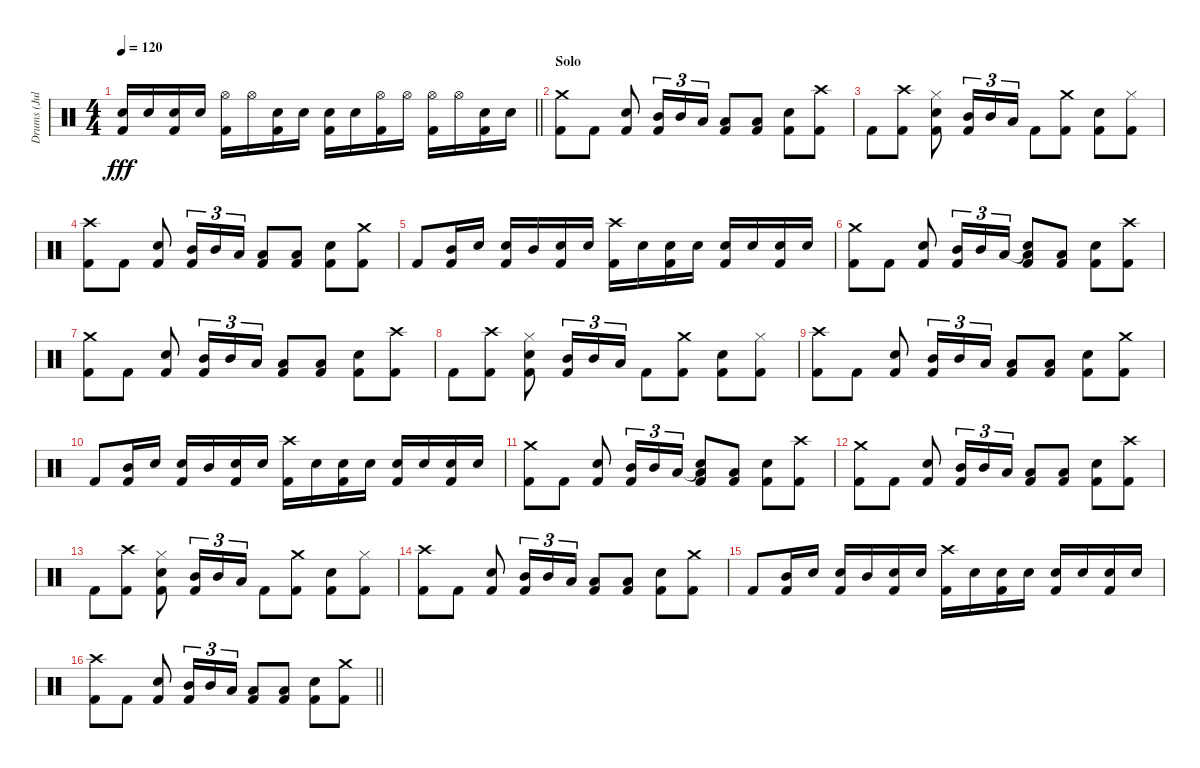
\track ("Drums (Julian Del Rosario)" "Drums (Jul") {instrument percussion}
\staff {score}
\articulation defaults
\ts (4 4)
\tempo 120
\clef neutral
\barLineRight lightlight
\ks c
("Snare (hit) 2" "Kick (hit) 2").16{dy fff} "Snare (hit) 2".16 ("Snare (hit) 2" "Kick (hit) 2").16 "Snare (hit) 2".16 ("Hi-Hat (open)" "Kick (hit) 2").16 "Hi-Hat (open)".16 ("Snare (hit) 2" "Kick (hit) 2").16 "Snare (hit) 2".16 ("Snare (hit) 2" "Kick (hit) 2").16 "Snare (hit) 2".16 ("Hi-Hat (open)" "Kick (hit) 2").16 "Hi-Hat (open)".16 ("Hi-Hat (open)" "Kick (hit) 2").16 "Hi-Hat (open)".16 ("Snare (hit) 2" "Kick (hit) 2").16 "Snare (hit) 2".16 |
\section ("" "Solo")
("Crash medium (hit)" "Kick (hit) 2").8 "Kick (hit) 2".8 ("Snare (hit) 2" "Kick (hit) 2").8 ("Mid Tom (hit)" "Kick (hit) 2").16{tu (3 2)} "Mid Tom (hit)".16{tu (3 2)} "Low Tom (hit)".16{tu (3 2)} ("Low Tom (hit)" "Kick (hit) 2").8 ("Low Tom (hit)" "Kick (hit) 2").8 ("Snare (hit) 2" "Kick (hit) 2").8 ("Crash high (hit)" "Kick (hit) 2").8 |
"Kick (hit) 2".8 ("Crash high (hit)" "Kick (hit) 2").8 ("Hi-Hat (closed)" "Snare (hit) 2" "Kick (hit) 2").8 ("Mid Tom (hit)" "Kick (hit) 2").16{tu (3 2)} "Mid Tom (hit)".16{tu (3 2)} "Low Tom (hit)".16{tu (3 2)} "Kick (hit) 2".8 ("Crash medium (hit)" "Kick (hit) 2").8 ("Snare (hit) 2" "Kick (hit) 2").8 ("Hi-Hat (closed)" "Kick (hit) 2").8 |
("Crash high (hit)" "Kick (hit) 2").8 "Kick (hit) 2".8 ("Snare (hit) 2" "Kick (hit) 2").8 ("Mid Tom (hit)" "Kick (hit) 2").16{tu (3 2)} "Mid Tom (hit)".16{tu (3 2)} "Low Tom (hit)".16{tu (3 2)} ("Low Tom (hit)" "Kick (hit) 2").8 ("Low Tom (hit)" "Kick (hit) 2").8 ("Snare (hit) 2" "Kick (hit) 2").8 ("Crash medium (hit)" "Kick (hit) 2").8 |
"Kick (hit) 2".8 ("Mid Tom (hit)" "Kick (hit) 2").16 "Snare (hit) 2".16 ("Snare (hit) 2" "Kick (hit) 2").16 "Mid Tom (hit)".16 ("Snare (hit) 2" "Kick (hit) 2").16 "Snare (hit) 2".16 ("Crash high (hit)" "Kick (hit) 2").16 "Snare (hit) 2".16 ("Snare (hit) 2" "Kick (hit) 2").16 "Snare (hit) 2".16 ("Snare (hit) 2" "Kick (hit) 2").16 "Snare (hit) 2".16 ("Snare (hit) 2" "Kick (hit) 2").16 "Snare (hit) 2".16 |
("Crash medium (hit)" "Kick (hit) 2").8 "Kick (hit) 2".8 ("Snare (hit) 2" "Kick (hit) 2").8 ("Mid Tom (hit)" "Kick (hit) 2").16{tu (3 2)} "Mid Tom (hit)".16{tu (3 2)} "Low Tom (hit)".16{tu (3 2)} ("Snare (hit)"{t} "Low Tom (hit)" "Kick (hit) 2").8 ("Low Tom (hit)" "Kick (hit) 2").8 ("Snare (hit) 2" "Kick (hit) 2").8 ("Crash high (hit)" "Kick (hit) 2").8 |
("Crash medium (hit)" "Kick (hit) 2").8 "Kick (hit) 2".8 ("Snare (hit) 2" "Kick (hit) 2").8 ("Mid Tom (hit)" "Kick (hit) 2").16{tu (3 2)} "Mid Tom (hit)".16{tu (3 2)} "Low Tom (hit)".16{tu (3 2)} ("Low Tom (hit)" "Kick (hit) 2").8 ("Low Tom (hit)" "Kick (hit) 2").8 ("Snare (hit) 2" "Kick (hit) 2").8 ("Crash high (hit)" "Kick (hit) 2").8 |
"Kick (hit) 2".8 ("Crash high (hit)" "Kick (hit) 2").8 ("Hi-Hat (closed)" "Snare (hit) 2" "Kick (hit) 2").8 ("Mid Tom (hit)" "Kick (hit) 2").16{tu (3 2)} "Mid Tom (hit)".16{tu (3 2)} "Low Tom (hit)".16{tu (3 2)} "Kick (hit) 2".8 ("Crash medium (hit)" "Kick (hit) 2").8 ("Snare (hit) 2" "Kick (hit) 2").8 ("Hi-Hat (closed)" "Kick (hit) 2").8 |
("Crash high (hit)" "Kick (hit) 2").8 "Kick (hit) 2".8 ("Snare (hit) 2" "Kick (hit) 2").8 ("Mid Tom (hit)" "Kick (hit) 2").16{tu (3 2)} "Mid Tom (hit)".16{tu (3 2)} "Low Tom (hit)".16{tu (3 2)} ("Low Tom (hit)" "Kick (hit) 2").8 ("Low Tom (hit)" "Kick (hit) 2").8 ("Snare (hit) 2" "Kick (hit) 2").8 ("Crash medium (hit)" "Kick (hit) 2").8 |
"Kick (hit) 2".8 ("Mid Tom (hit)" "Kick (hit) 2").16 "Snare (hit) 2".16 ("Snare (hit) 2" "Kick (hit) 2").16 "Mid Tom (hit)".16 ("Snare (hit) 2" "Kick (hit) 2").16 "Snare (hit) 2".16 ("Crash high (hit)" "Kick (hit) 2").16 "Snare (hit) 2".16 ("Snare (hit) 2" "Kick (hit) 2").16 "Snare (hit) 2".16 ("Snare (hit) 2" "Kick (hit) 2").16 "Snare (hit) 2".16 ("Snare (hit) 2" "Kick (hit) 2").16 "Snare (hit) 2".16 |
("Crash medium (hit)" "Kick (hit) 2").8 "Kick (hit) 2".8 ("Snare (hit) 2" "Kick (hit) 2").8 ("Mid Tom (hit)" "Kick (hit) 2").16{tu (3 2)} "Mid Tom (hit)".16{tu (3 2)} "Low Tom (hit)".16{tu (3 2)} ("Snare (hit)"{t} "Low Tom (hit)" "Kick (hit) 2").8 ("Low Tom (hit)" "Kick (hit) 2").8 ("Snare (hit) 2" "Kick (hit) 2").8 ("Crash high (hit)" "Kick (hit) 2").8 |
("Crash medium (hit)" "Kick (hit) 2").8 "Kick (hit) 2".8 ("Snare (hit) 2" "Kick (hit) 2").8 ("Mid Tom (hit)" "Kick (hit) 2").16{tu (3 2)} "Mid Tom (hit)".16{tu (3 2)} "Low Tom (hit)".16{tu (3 2)} ("Low Tom (hit)" "Kick (hit) 2").8 ("Low Tom (hit)" "Kick (hit) 2").8 ("Snare (hit) 2" "Kick (hit) 2").8 ("Crash high (hit)" "Kick (hit) 2").8 |
"Kick (hit) 2".8 ("Crash high (hit)" "Kick (hit) 2").8 ("Hi-Hat (closed)" "Snare (hit) 2" "Kick (hit) 2").8 ("Mid Tom (hit)" "Kick (hit) 2").16{tu (3 2)} "Mid Tom (hit)".16{tu (3 2)} "Low Tom (hit)".16{tu (3 2)} "Kick (hit) 2".8 ("Crash medium (hit)" "Kick (hit) 2").8 ("Snare (hit) 2" "Kick (hit) 2").8 ("Hi-Hat (closed)" "Kick (hit) 2").8 |
("Crash high (hit)" "Kick (hit) 2").8 "Kick (hit) 2".8 ("Snare (hit) 2" "Kick (hit) 2").8 ("Mid Tom (hit)" "Kick (hit) 2").16{tu (3 2)} "Mid Tom (hit)".16{tu (3 2)} "Low Tom (hit)".16{tu (3 2)} ("Low Tom (hit)" "Kick (hit) 2").8 ("Low Tom (hit)" "Kick (hit) 2").8 ("Snare (hit) 2" "Kick (hit) 2").8 ("Crash medium (hit)" "Kick (hit) 2").8 |
"Kick (hit) 2".8 ("Mid Tom (hit)" "Kick (hit) 2").16 "Snare (hit) 2".16 ("Snare (hit) 2" "Kick (hit) 2").16 "Mid Tom (hit)".16 ("Snare (hit) 2" "Kick (hit) 2").16 "Snare (hit) 2".16 ("Crash high (hit)" "Kick (hit) 2").16 "Snare (hit) 2".16 ("Snare (hit) 2" "Kick (hit) 2").16 "Snare (hit) 2".16 ("Snare (hit) 2" "Kick (hit) 2").16 "Snare (hit) 2".16 ("Snare (hit) 2" "Kick (hit) 2").16 "Snare (hit) 2".16 |
\barLineRight lightlight
("Crash high (hit)" "Kick (hit) 2").8 "Kick (hit) 2".8 ("Snare (hit) 2" "Kick (hit) 2").8 ("Mid Tom (hit)" "Kick (hit) 2").16{tu (3 2)} "Mid Tom (hit)".16{tu (3 2)} "Low Tom (hit)".16{tu (3 2)} ("Low Tom (hit)" "Kick (hit) 2").8 ("Low Tom (hit)" "Kick (hit) 2").8 ("Snare (hit) 2" "Kick (hit) 2").8 ("Crash medium (hit)" "Kick (hit) 2").8
